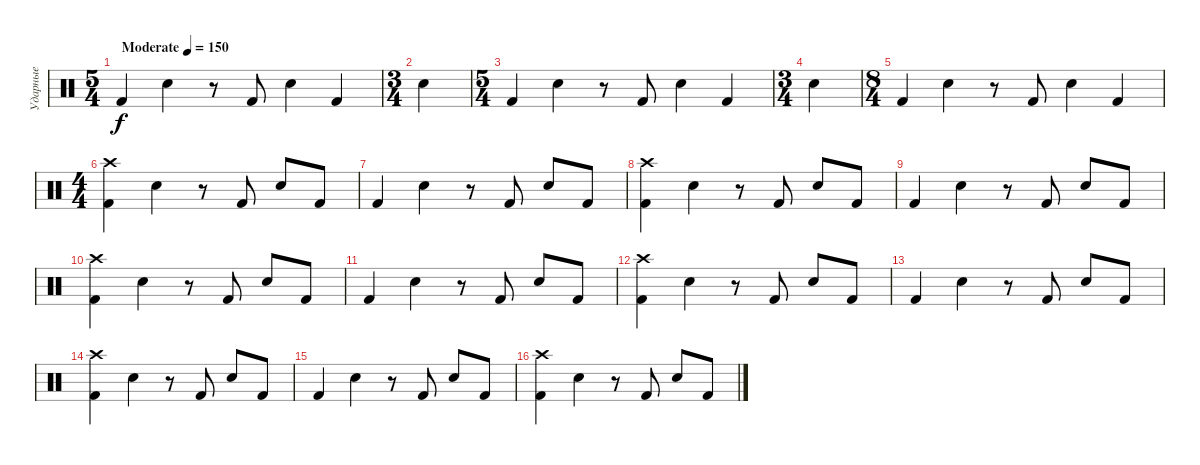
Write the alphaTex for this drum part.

\track ("Ударные" "Ударные") {instrument percussion}
\staff {score}
\articulation defaults
\ts (5 4)
\tempo (150 "Moderate")
\clef neutral
\ks c "Kick (hit) 2".4{dy f} "Electric Snare (hit)".4
r.8 "Kick (hit) 2".8 "Electric Snare (hit)".4 "Kick (hit) 2".4 |
\ts (3 4)
"Electric Snare (hit)".4 |
\ts (5 4)
"Kick (hit) 2".4 "Electric Snare (hit)".4 r.8 "Kick (hit) 2".8 "Electric Snare (hit)".4 "Kick (hit) 2".4 |
\ts (3 4)
"Electric Snare (hit)".4 |
\ts (8 4)
"Kick (hit) 2".4 "Electric Snare (hit)".4 r.8 "Kick (hit) 2".8 "Electric Snare (hit)".4 "Kick (hit) 2".4 |
\ts (4 4)
("Kick (hit) 2" "Crash high (hit)").4 "Electric Snare (hit)".4 r.8 "Kick (hit) 2".8 "Electric Snare (hit)".8 "Kick (hit) 2".8 |
"Kick (hit) 2".4 "Electric Snare (hit)".4 r.8 "Kick (hit) 2".8 "Electric Snare (hit)".8 "Kick (hit) 2".8 |
("Kick (hit) 2" "Crash high (hit)").4 "Electric Snare (hit)".4 r.8 "Kick (hit) 2".8 "Electric Snare (hit)".8 "Kick (hit) 2".8 |
"Kick (hit) 2".4 "Electric Snare (hit)".4 r.8 "Kick (hit) 2".8 "Electric Snare (hit)".8 "Kick (hit) 2".8 |
("Kick (hit) 2" "Crash high (hit)").4 "Electric Snare (hit)".4 r.8 "Kick (hit) 2".8 "Electric Snare (hit)".8 "Kick (hit) 2".8 |
"Kick (hit) 2".4 "Electric Snare (hit)".4 r.8 "Kick (hit) 2".8 "Electric Snare (hit)".8 "Kick (hit) 2".8 |
("Kick (hit) 2" "Crash high (hit)").4 "Electric Snare (hit)".4 r.8 "Kick (hit) 2".8 "Electric Snare (hit)".8 "Kick (hit) 2".8 |
"Kick (hit) 2".4 "Electric Snare (hit)".4 r.8 "Kick (hit) 2".8 "Electric Snare (hit)".8 "Kick (hit) 2".8 |
("Kick (hit) 2" "Crash high (hit)").4 "Electric Snare (hit)".4 r.8 "Kick (hit) 2".8 "Electric Snare (hit)".8 "Kick (hit) 2".8 |
"Kick (hit) 2".4 "Electric Snare (hit)".4 r.8 "Kick (hit) 2".8 "Electric Snare (hit)".8 "Kick (hit) 2".8 |
("Kick (hit) 2" "Crash high (hit)").4 "Electric Snare (hit)".4 r.8 "Kick (hit) 2".8 "Electric Snare (hit)".8 "Kick (hit) 2".8
